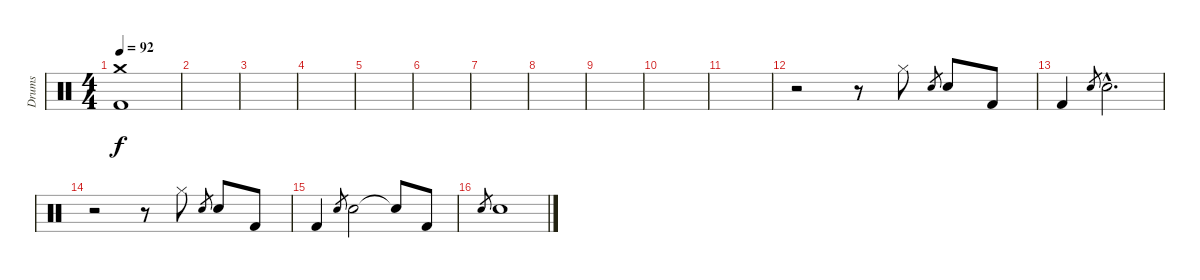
\track ("Drums" "Drums") {instrument percussion}
\staff {score}
\articulation defaults
\ts (4 4)
\tempo 92
\clef neutral
\ks c
("Crash medium (hit)" "Kick (hit) 2").1{dy f} |
|
|
|
|
|
|
|
|
|
|
r.2 r.8 "Hi-Hat (closed)".8 "Snare (hit) 2".8{gr} "Snare (hit) 2".8 "Kick (hit) 2".8 |
"Kick (hit) 2".4 "Snare (hit) 2".8{gr} "Snare (hit) 2"{hac}.2{d} |
r.2 r.8 "Hi-Hat (closed)".8 "Snare (hit) 2".8{gr} "Snare (hit) 2".8 "Kick (hit) 2".8 |
"Kick (hit) 2".4 "Snare (hit) 2".8{gr} "Snare (hit) 2".2 "Snare (hit)"{t}.8 "Kick (hit) 2".8 |
"Snare (hit) 2".8{gr} "Snare (hit) 2".1
